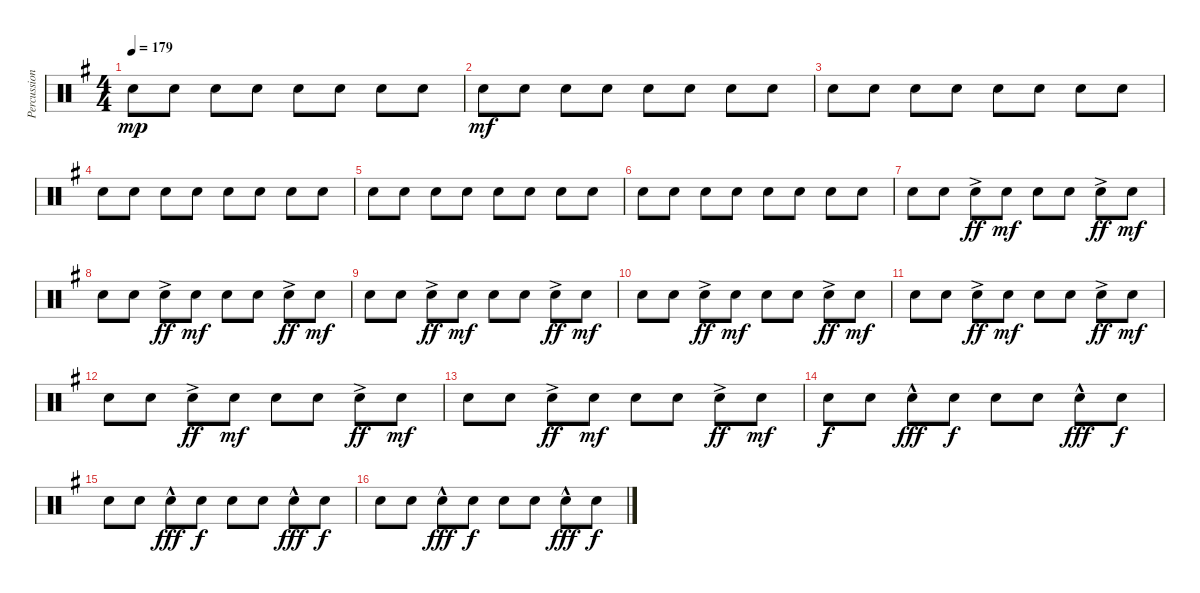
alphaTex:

\track ("Percussion 01" "Percussion") {instrument percussion}
\staff {score}
\articulation defaults
\ts (4 4)
\tempo 179
\clef neutral
\ks g "Snare (hit) 2".8{dy mp} "Snare (hit) 2".8 "Snare (hit) 2".8 "Snare (hit) 2".8 "Snare (hit) 2".8 "Snare (hit) 2".8 "Snare (hit) 2".8 "Snare (hit) 2".8
|
"Snare (hit) 2".8{dy mf} "Snare (hit) 2".8 "Snare (hit) 2".8 "Snare (hit) 2".8 "Snare (hit) 2".8 "Snare (hit) 2".8 "Snare (hit) 2".8 "Snare (hit) 2".8 |
"Snare (hit) 2".8 "Snare (hit) 2".8 "Snare (hit) 2".8 "Snare (hit) 2".8 "Snare (hit) 2".8 "Snare (hit) 2".8 "Snare (hit) 2".8 "Snare (hit) 2".8 |
"Snare (hit) 2".8 "Snare (hit) 2".8 "Snare (hit) 2".8 "Snare (hit) 2".8 "Snare (hit) 2".8 "Snare (hit) 2".8 "Snare (hit) 2".8 "Snare (hit) 2".8 |
"Snare (hit) 2".8 "Snare (hit) 2".8 "Snare (hit) 2".8 "Snare (hit) 2".8 "Snare (hit) 2".8 "Snare (hit) 2".8 "Snare (hit) 2".8 "Snare (hit) 2".8 |
"Snare (hit) 2".8 "Snare (hit) 2".8 "Snare (hit) 2".8 "Snare (hit) 2".8 "Snare (hit) 2".8 "Snare (hit) 2".8 "Snare (hit) 2".8 "Snare (hit) 2".8 |
"Snare (hit) 2".8 "Snare (hit) 2".8 "Snare (hit) 2"{ac}.8{dy ff} "Snare (hit) 2".8{dy mf} "Snare (hit) 2".8 "Snare (hit) 2".8 "Snare (hit) 2"{ac}.8{dy ff} "Snare (hit) 2".8{dy mf} |
"Snare (hit) 2".8 "Snare (hit) 2".8 "Snare (hit) 2"{ac}.8{dy ff} "Snare (hit) 2".8{dy mf} "Snare (hit) 2".8 "Snare (hit) 2".8 "Snare (hit) 2"{ac}.8{dy ff} "Snare (hit) 2".8{dy mf} |
"Snare (hit) 2".8 "Snare (hit) 2".8 "Snare (hit) 2"{ac}.8{dy ff} "Snare (hit) 2".8{dy mf} "Snare (hit) 2".8 "Snare (hit) 2".8 "Snare (hit) 2"{ac}.8{dy ff} "Snare (hit) 2".8{dy mf} |
"Snare (hit) 2".8 "Snare (hit) 2".8 "Snare (hit) 2"{ac}.8{dy ff} "Snare (hit) 2".8{dy mf} "Snare (hit) 2".8 "Snare (hit) 2".8 "Snare (hit) 2"{ac}.8{dy ff} "Snare (hit) 2".8{dy mf} |
"Snare (hit) 2".8 "Snare (hit) 2".8 "Snare (hit) 2"{ac}.8{dy ff} "Snare (hit) 2".8{dy mf} "Snare (hit) 2".8 "Snare (hit) 2".8 "Snare (hit) 2"{ac}.8{dy ff} "Snare (hit) 2".8{dy mf} |
"Snare (hit) 2".8 "Snare (hit) 2".8 "Snare (hit) 2"{ac}.8{dy ff} "Snare (hit) 2".8{dy mf} "Snare (hit) 2".8 "Snare (hit) 2".8 "Snare (hit) 2"{ac}.8{dy ff} "Snare (hit) 2".8{dy mf} |
"Snare (hit) 2".8 "Snare (hit) 2".8 "Snare (hit) 2"{ac}.8{dy ff} "Snare (hit) 2".8{dy mf} "Snare (hit) 2".8 "Snare (hit) 2".8 "Snare (hit) 2"{ac}.8{dy ff} "Snare (hit) 2".8{dy mf} |
"Snare (hit) 2".8{dy f} "Snare (hit) 2".8 "Snare (hit) 2"{hac}.8{dy fff} "Snare (hit) 2".8{dy f} "Snare (hit) 2".8 "Snare (hit) 2".8 "Snare (hit) 2"{hac}.8{dy fff} "Snare (hit) 2".8{dy f} |
"Snare (hit) 2".8 "Snare (hit) 2".8 "Snare (hit) 2"{hac}.8{dy fff} "Snare (hit) 2".8{dy f} "Snare (hit) 2".8 "Snare (hit) 2".8 "Snare (hit) 2"{hac}.8{dy fff} "Snare (hit) 2".8{dy f} |
"Snare (hit) 2".8 "Snare (hit) 2".8 "Snare (hit) 2"{hac}.8{dy fff} "Snare (hit) 2".8{dy f} "Snare (hit) 2".8 "Snare (hit) 2".8 "Snare (hit) 2"{hac}.8{dy fff} "Snare (hit) 2".8{dy f}
